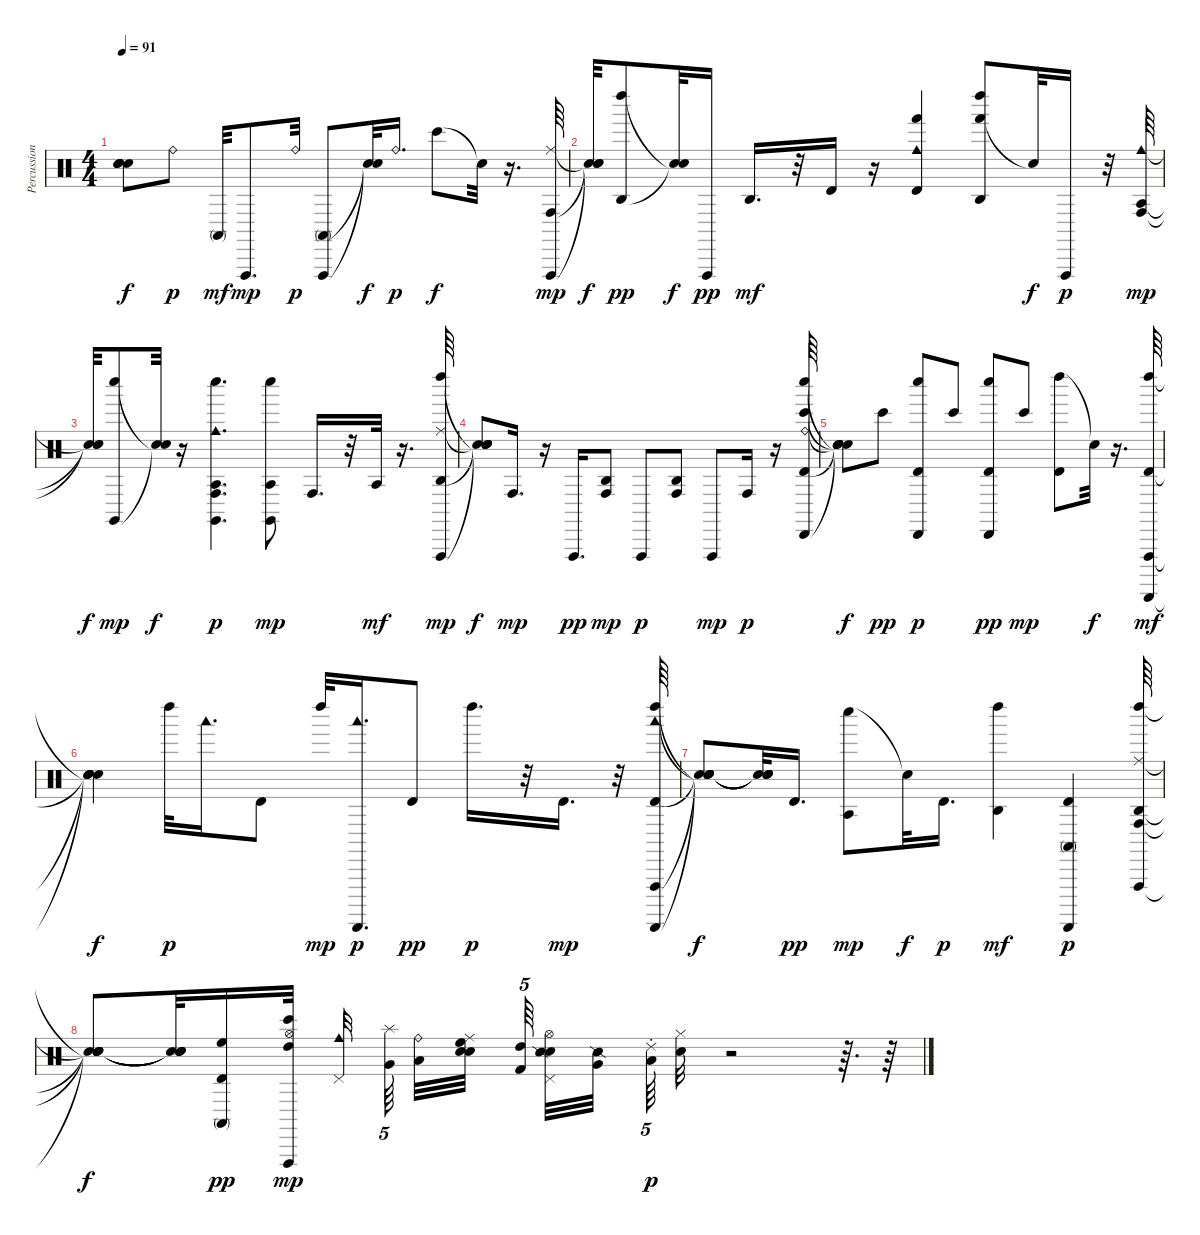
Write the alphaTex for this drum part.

\track ("Percussion Organ" "Percussion") {instrument percussion}
\staff {score}
\articulation defaults
\ts (4 4)
\tempo 91
\clef neutral
\ks c
("Snare (hit)"{t} "Snare (hit)"{t} "Snare (hit)"{t} "Snare (hit)"{t}).8{dy f} "Ride (bell)".8{dy p} "Conga high (mute)".32{dy mf} "Vibraslap (hit)".8{d dy mp} "Ride (bell)".32{dy p} ("Vibraslap (hit)" "Conga high (mute)").8 ("Snare (hit)"{t} "Snare (hit)"{t}).32{dy f} "Ride (bell)".16{d dy p} "Bongo High (hit)".8{dy f} "Snare (hit)"{t}.32 r.16{d} ("Ride (middle)" "Conga high (hit)" "Vibraslap (hit)").64{dy mp} |
("Snare (hit)"{t} "Snare (hit)"{t} "Snare (hit)"{t}).32{dy f} ("Agogo high (hit)" "Left Maraca (hit)").8{dy pp} ("Snare (hit)"{t} "Snare (hit)"{t}).32{dy f} "Vibraslap (hit)".16{dy pp} "Agogo high (hit)".16{d dy mf} r.32 "Timbale high (hit)".16 r.16 ("Hand (hit)" "Timbale high (hit)" "Cowbell medium (hit)").4 ("Hand (hit)" "Agogo high (hit)" "Left Maraca (hit)").8 "Snare (hit)"{t}.32{dy f} "Vibraslap (hit)".16{dy p} r.32 ("Agogo tow (hit)" "Cowbell medium (hit)" "Conga high (hit)").64{dy mp} |
("Snare (hit)"{t} "Snare (hit)"{t} "Snare (hit)"{t}).32{dy f} ("Claves (hit)" "Whistle low (hit)").8{dy mp} ("Snare (hit)"{t} "Snare (hit)"{t}).32{dy f} r.16 ("Cowbell medium (hit)" "Conga high (hit)" "Claves (hit)" "Whistle low (hit)" "Agogo tow (hit)").4{d dy p} ("Claves (hit)" "Whistle low (hit)" "Agogo tow (hit)").8{dy mp} "Conga high (hit)".16{d} r.32 "Agogo tow (hit)".32{dy mf} r.16{d} ("Ride (middle)" "Vibraslap (hit)" "Left Maraca (hit)" "Agogo high (hit)").64{dy mp} |
("Snare (hit)"{t} "Snare (hit)"{t} "Snare (hit)"{t} "Snare (hit)"{t}).8{dy f} "Conga high (hit)".16{d dy mp} r.16 "Vibraslap (hit)".16{d dy pp} ("Conga high (hit)" "Agogo high (hit)").8{dy mp} "Vibraslap (hit)".8{dy p} ("Conga high (hit)" "Agogo high (hit)").8 "Vibraslap (hit)".8{dy mp} "Conga high (hit)".16{dy p} r.16 ("Bongo High (hit)" "Ride (bell)" "Timbale high (hit)" "Cabasa (hit)" "Whistle low (hit)").64 |
("Snare (hit)"{t} "Snare (hit)"{t} "Snare (hit)"{t} "Snare (hit)"{t} "Snare (hit)"{t}).8{dy f} "Bongo High (hit)".8{dy pp} ("Whistle low (hit)" "Cabasa (hit)" "Timbale high (hit)").8{dy p} "Bongo High (hit)".8 ("Timbale high (hit)" "Cabasa (hit)" "Whistle low (hit)").8{dy pp} "Bongo High (hit)".8{dy mp} ("Left Maraca (hit)" "Timbale high (hit)").8 "Snare (hit)"{t}.32{dy f} r.16{d} ("Vibraslap (hit)" "Timbale high (hit)" "Guiro (scrap-return)" "Left Maraca (hit)").64{dy mf} |
("Snare (hit)"{t} "Snare (hit)"{t} "Snare (hit)"{t} "Snare (hit)"{t}).4{dy f} "Left Maraca (hit)".32{dy p} "Woodblock low (hit)".16{d} "Timbale high (hit)".8 "Left Maraca (hit)".32{dy mp} ("Guiro (scrap-return)" "Woodblock low (hit)").16{d dy p} "Timbale high (hit)".8{dy pp} "Left Maraca (hit)".16{d dy p} r.32 "Timbale high (hit)".16{d dy mp} r.32 ("Timbale high (hit)" "Vibraslap (hit)" "Woodblock low (hit)" "Guiro (scrap-return)" "Left Maraca (hit)").64 |
("Snare (hit)"{t} "Snare (hit)"{t} "Snare (hit)"{t} "Snare (hit)"{t} "Snare (hit)"{t}).8{dy f} ("Snare (hit)"{t} "Snare (hit)"{t} "Snare (hit)"{t} "Snare (hit)"{t}).32 "Timbale high (hit)".16{d dy pp} ("Whistle low (hit)" "Agogo tow (hit)").8{dy mp} "Snare (hit)"{t}.32{dy f} "Timbale high (hit)".16{d dy p} ("Agogo high (hit)" "Left Maraca (hit)").4{dy mf} ("Timbale high (hit)" "Guiro (scrap-return)" "Conga high (mute)").4{dy p} ("Agogo high (hit)" "Left Maraca (hit)" "Vibraslap (hit)" "Conga high (hit)" "Ride (middle)").64 |
("Snare (hit)"{t} "Snare (hit)"{t} "Snare (hit)"{t} "Snare (hit)"{t} "Snare (hit)"{t}).8{dy f} ("Snare (hit)"{t} "Snare (hit)"{t} "Snare (hit)"{t} "Snare (hit)"{t}).32 ("Timbale high (hit)" "Conga high (mute)" "High Floor Tom (hit)").16{dy pp} ("Bongo High (hit)" "High Tom (hit)" "Hi-Hat (open)" "Vibraslap (hit)").32{dy mp} ("Cowbell medium (hit)" "Pedal Hi-Hat (hit)").32 ("Splash (hit)" "Very Low Tom (hit)").64{tu (5 4)} ("Ride (bell)" "Low Floor Tom (hit)").32 ("Ride (middle)" "Hand Clap (hit)" "Snare (hit) 2" "High Floor Tom (hit)").32 ("High Tom (hit)" "Kick (hit) 2").64{tu (5 4)} ("Hi-Hat (open)" "Metronome (bell)" "Pedal Hi-Hat (hit)" "Snare (side stick) 2").32 ("Very Low Tom (hit)" "Snare (side stick) 2").32 ("Low Floor Tom (hit)" "Ride (choke) 2").64{tu (5 4) dy p} ("Hi-Hat (closed)" "Hand Clap (hit)").32 r.2 r.64{d} r.64
